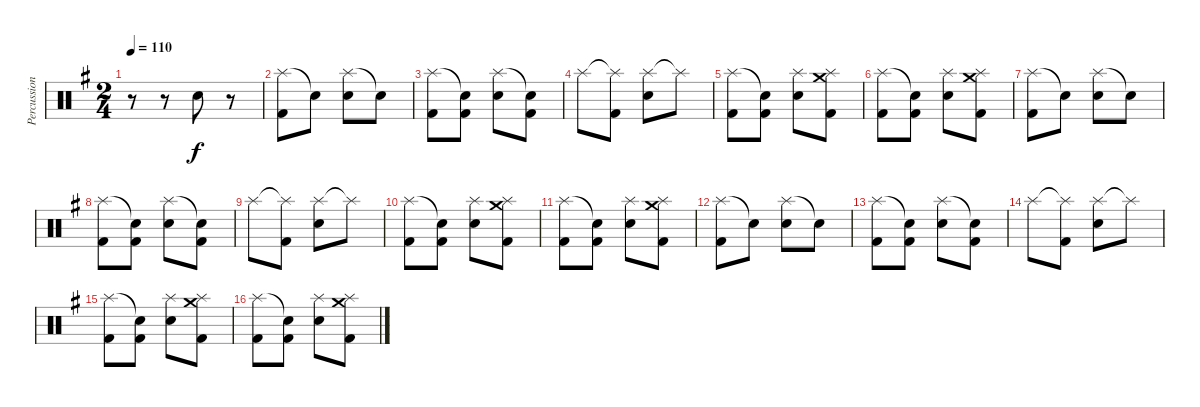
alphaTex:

\track ("Percussion" "Percussion") {instrument percussion}
\staff {score}
\articulation defaults
\ts (2 4)
\tempo 110
\clef neutral
\ks g
r.8{dy f} r.8 "Electric Snare (hit)".8 r.8 |
("Splash (hit)" "Kick (hit) 2").8 "Snare (hit)"{t}.8 ("Splash (hit)" "Electric Snare (hit)").8 "Snare (hit)"{t}.8 |
("Splash (hit)" "Kick (hit) 2").8 ("Snare (hit)"{t} "Kick (hit) 2").8 ("Splash (hit)" "Electric Snare (hit)").8 ("Snare (hit)"{t} "Kick (hit) 2").8 |
"Splash (hit)".8 ("Splash (hit)"{t} "Kick (hit) 2").8 ("Splash (hit)" "Electric Snare (hit)").8 "Splash (hit)"{t}.8 |
("Splash (hit)" "Kick (hit) 2").8 ("Snare (hit)"{t} "Kick (hit) 2").8 ("Splash (hit)" "Electric Snare (hit)").8 ("Crash medium (hit)" "Splash (hit)" "Kick (hit) 2").8 |
("Splash (hit)" "Kick (hit) 2").8 ("Snare (hit)"{t} "Kick (hit) 2").8 ("Splash (hit)" "Electric Snare (hit)").8 ("Crash medium (hit)" "Splash (hit)" "Kick (hit) 2").8 |
("Splash (hit)" "Kick (hit) 2").8 "Snare (hit)"{t}.8 ("Splash (hit)" "Electric Snare (hit)").8 "Snare (hit)"{t}.8 |
("Splash (hit)" "Kick (hit) 2").8 ("Snare (hit)"{t} "Kick (hit) 2").8 ("Splash (hit)" "Electric Snare (hit)").8 ("Snare (hit)"{t} "Kick (hit) 2").8 |
"Splash (hit)".8 ("Splash (hit)"{t} "Kick (hit) 2").8 ("Splash (hit)" "Electric Snare (hit)").8 "Splash (hit)"{t}.8 |
("Splash (hit)" "Kick (hit) 2").8 ("Snare (hit)"{t} "Kick (hit) 2").8 ("Splash (hit)" "Electric Snare (hit)").8 ("Crash medium (hit)" "Splash (hit)" "Kick (hit) 2").8 |
("Splash (hit)" "Kick (hit) 2").8 ("Snare (hit)"{t} "Kick (hit) 2").8 ("Splash (hit)" "Electric Snare (hit)").8 ("Crash medium (hit)" "Splash (hit)" "Kick (hit) 2").8 |
("Splash (hit)" "Kick (hit) 2").8 "Snare (hit)"{t}.8 ("Splash (hit)" "Electric Snare (hit)").8 "Snare (hit)"{t}.8 |
("Splash (hit)" "Kick (hit) 2").8 ("Snare (hit)"{t} "Kick (hit) 2").8 ("Splash (hit)" "Electric Snare (hit)").8 ("Snare (hit)"{t} "Kick (hit) 2").8 |
"Splash (hit)".8 ("Splash (hit)"{t} "Kick (hit) 2").8 ("Splash (hit)" "Electric Snare (hit)").8 "Splash (hit)"{t}.8 |
("Splash (hit)" "Kick (hit) 2").8 ("Snare (hit)"{t} "Kick (hit) 2").8 ("Splash (hit)" "Electric Snare (hit)").8 ("Crash medium (hit)" "Splash (hit)" "Kick (hit) 2").8 |
("Splash (hit)" "Kick (hit) 2").8 ("Snare (hit)"{t} "Kick (hit) 2").8 ("Splash (hit)" "Electric Snare (hit)").8 ("Crash medium (hit)" "Splash (hit)" "Kick (hit) 2").8
